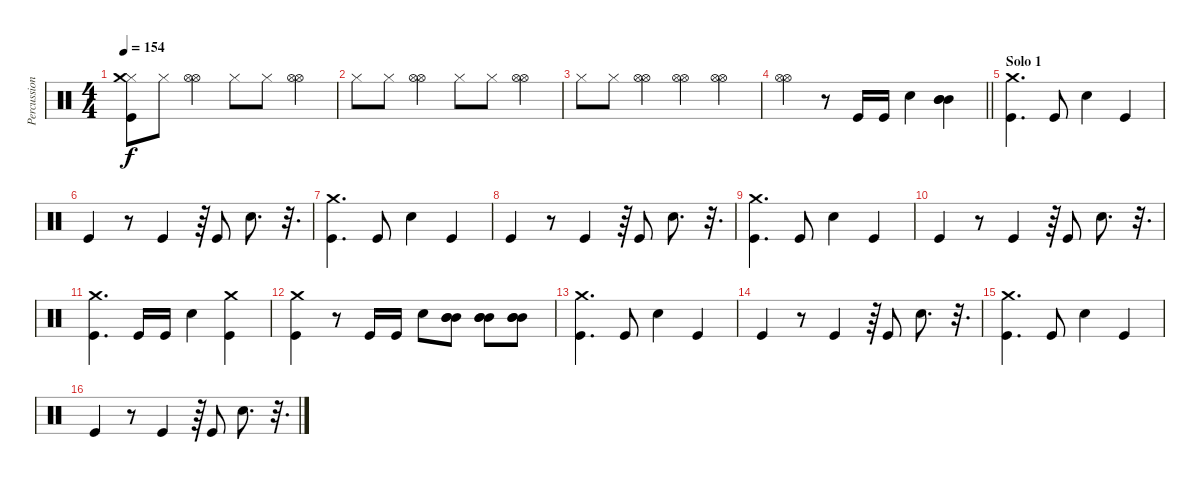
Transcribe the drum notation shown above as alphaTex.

\track ("Percussion" "Percussion") {instrument percussion}
\staff {score}
\articulation defaults
\ts (4 4)
\tempo 154
\clef neutral
\ks c
("Kick (hit)" "Hi-Hat (closed)" "Crash medium (hit)").8{dy f} "Hi-Hat (closed)".8 ("Hi-Hat (open)" "Hi-Hat (open)").4 "Hi-Hat (closed)".8 "Hi-Hat (closed)".8 ("Hi-Hat (open)" "Hi-Hat (open)").4 |
"Hi-Hat (closed)".8 "Hi-Hat (closed)".8 ("Hi-Hat (open)" "Hi-Hat (open)").4 "Hi-Hat (closed)".8 "Hi-Hat (closed)".8 ("Hi-Hat (open)" "Hi-Hat (open)").4 |
"Hi-Hat (closed)".8 "Hi-Hat (closed)".8 ("Hi-Hat (open)" "Hi-Hat (open)").4 ("Hi-Hat (open)" "Hi-Hat (open)").4 ("Hi-Hat (open)" "Hi-Hat (open)").4 |
\barLineRight lightlight
("Hi-Hat (open)" "Hi-Hat (open)").4 r.8 "Kick (hit)".16 "Kick (hit)".16 "Electric Snare (hit)".4 ("Mid Tom (hit)" "Mid Tom (hit)" "Mid Tom (hit)").4 |
\section ("" "Solo 1")
("Kick (hit)" "Crash medium (hit)").4{d} "Kick (hit)".8 "Electric Snare (hit)".4 "Kick (hit)".4 |
"Kick (hit)".4 r.8 "Kick (hit)".4 r.64 "Kick (hit)".8 "Electric Snare (hit)".8{d} r.32{d} |
("Kick (hit)" "Crash medium (hit)").4{d} "Kick (hit)".8 "Electric Snare (hit)".4 "Kick (hit)".4 |
"Kick (hit)".4 r.8 "Kick (hit)".4 r.64 "Kick (hit)".8 "Electric Snare (hit)".8{d} r.32{d} |
("Kick (hit)" "Crash medium (hit)").4{d} "Kick (hit)".8 "Electric Snare (hit)".4 "Kick (hit)".4 |
"Kick (hit)".4 r.8 "Kick (hit)".4 r.64 "Kick (hit)".8 "Electric Snare (hit)".8{d} r.32{d} |
("Kick (hit)" "Crash medium (hit)").4{d} "Kick (hit)".16 "Kick (hit)".16 "Electric Snare (hit)".4 ("Kick (hit)" "Crash medium (hit)").4 |
("Kick (hit)" "Crash medium (hit)").4 r.8 "Kick (hit)".16 "Kick (hit)".16 "Electric Snare (hit)".8 ("Mid Tom (hit)" "Mid Tom (hit)" "Mid Tom (hit)").8 ("Mid Tom (hit)" "Mid Tom (hit)" "Mid Tom (hit)").8 ("Mid Tom (hit)" "Mid Tom (hit)" "Mid Tom (hit)").8 |
("Kick (hit)" "Crash medium (hit)").4{d} "Kick (hit)".8 "Electric Snare (hit)".4 "Kick (hit)".4 |
"Kick (hit)".4 r.8 "Kick (hit)".4 r.64 "Kick (hit)".8 "Electric Snare (hit)".8{d} r.32{d} |
("Kick (hit)" "Crash medium (hit)").4{d} "Kick (hit)".8 "Electric Snare (hit)".4 "Kick (hit)".4 |
"Kick (hit)".4 r.8 "Kick (hit)".4 r.64 "Kick (hit)".8 "Electric Snare (hit)".8{d} r.32{d}
